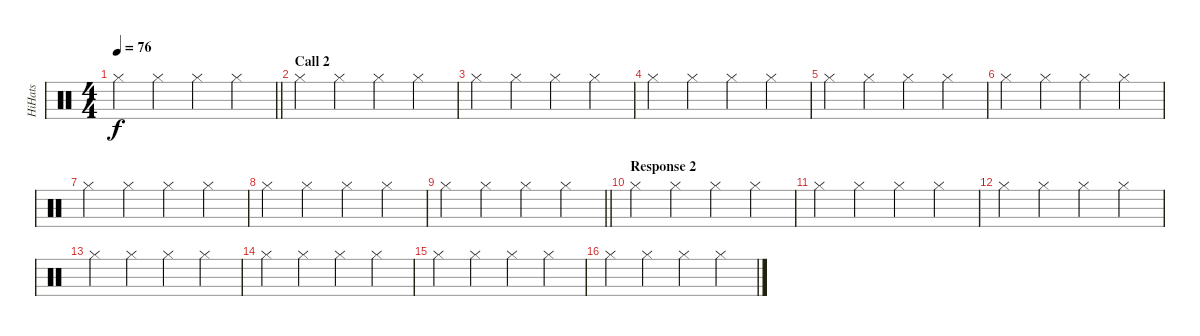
\track ("HiHats" "HiHats") {instrument percussion}
\staff {score}
\articulation defaults
\ts (4 4)
\tempo 76
\clef neutral
\barLineRight lightlight
\ks c "Hi-Hat (closed)".4{dy f} "Hi-Hat (closed)".4 "Hi-Hat (closed)".4 "Hi-Hat (closed)".4
|
\section ("" "Call 2")
"Hi-Hat (closed)".4{volume 9} "Hi-Hat (closed)".4 "Hi-Hat (closed)".4 "Hi-Hat (closed)".4 |
"Hi-Hat (closed)".4 "Hi-Hat (closed)".4 "Hi-Hat (closed)".4 "Hi-Hat (closed)".4 |
"Hi-Hat (closed)".4 "Hi-Hat (closed)".4 "Hi-Hat (closed)".4 "Hi-Hat (closed)".4 |
"Hi-Hat (closed)".4 "Hi-Hat (closed)".4 "Hi-Hat (closed)".4 "Hi-Hat (closed)".4 |
"Hi-Hat (closed)".4 "Hi-Hat (closed)".4 "Hi-Hat (closed)".4 "Hi-Hat (closed)".4 |
"Hi-Hat (closed)".4 "Hi-Hat (closed)".4 "Hi-Hat (closed)".4 "Hi-Hat (closed)".4 |
"Hi-Hat (closed)".4 "Hi-Hat (closed)".4 "Hi-Hat (closed)".4 "Hi-Hat (closed)".4 |
\barLineRight lightlight "Hi-Hat (closed)".4 "Hi-Hat (closed)".4 "Hi-Hat (closed)".4 "Hi-Hat (closed)".4
|
\section ("" "Response 2")
"Hi-Hat (closed)".4{volume 9} "Hi-Hat (closed)".4 "Hi-Hat (closed)".4 "Hi-Hat (closed)".4 |
"Hi-Hat (closed)".4 "Hi-Hat (closed)".4 "Hi-Hat (closed)".4 "Hi-Hat (closed)".4 |
"Hi-Hat (closed)".4 "Hi-Hat (closed)".4 "Hi-Hat (closed)".4 "Hi-Hat (closed)".4 |
"Hi-Hat (closed)".4 "Hi-Hat (closed)".4 "Hi-Hat (closed)".4 "Hi-Hat (closed)".4 |
"Hi-Hat (closed)".4 "Hi-Hat (closed)".4 "Hi-Hat (closed)".4 "Hi-Hat (closed)".4 |
"Hi-Hat (closed)".4 "Hi-Hat (closed)".4 "Hi-Hat (closed)".4 "Hi-Hat (closed)".4 |
"Hi-Hat (closed)".4 "Hi-Hat (closed)".4 "Hi-Hat (closed)".4 "Hi-Hat (closed)".4
